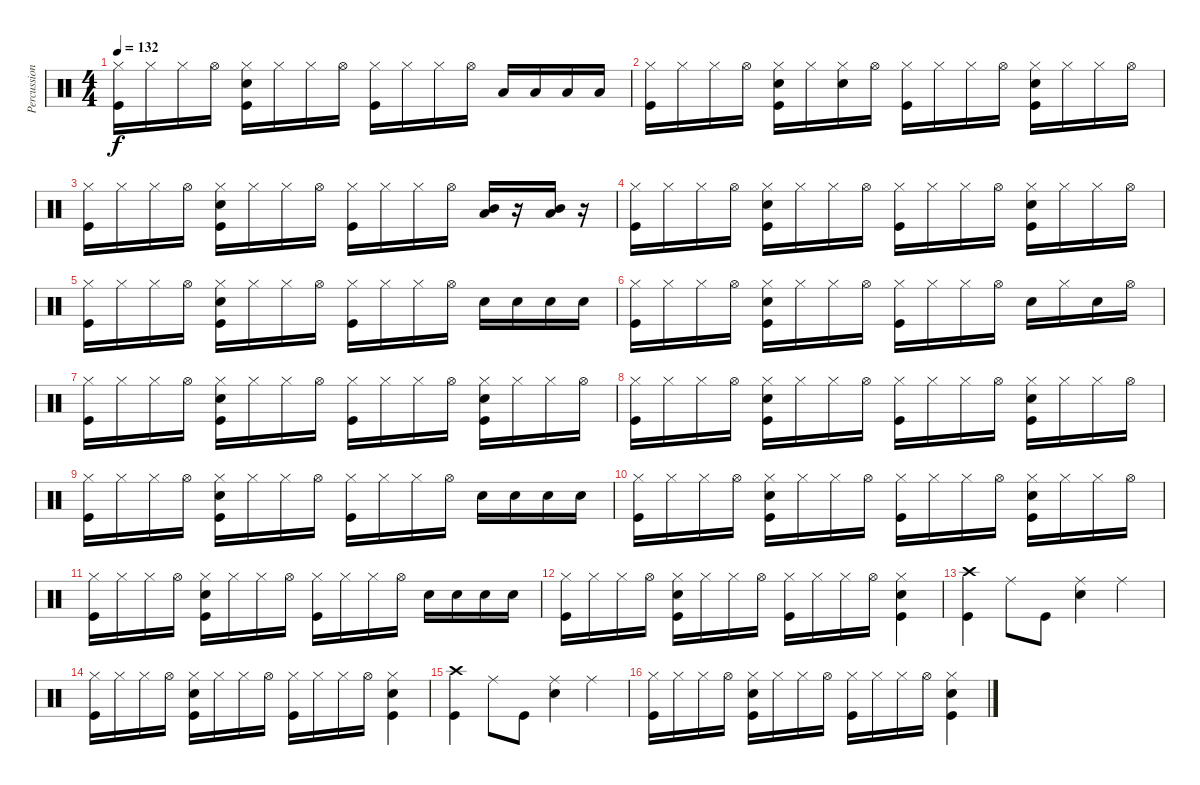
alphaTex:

\track ("Percussion" "Percussion") {instrument percussion}
\staff {score}
\articulation defaults
\ts (4 4)
\tempo 132
\clef neutral
\ks c
("Hi-Hat (closed)" "Kick (hit)").16{dy f} "Hi-Hat (closed)".16 "Hi-Hat (closed)".16 "Hi-Hat (open)".16 ("Hi-Hat (closed)" "Electric Snare (hit)" "Kick (hit)").16 "Hi-Hat (closed)".16 "Hi-Hat (closed)".16 "Hi-Hat (open)".16 ("Hi-Hat (closed)" "Kick (hit)").16 "Hi-Hat (closed)".16 "Hi-Hat (closed)".16 "Hi-Hat (open)".16 "Low Tom (hit)".16 "Low Tom (hit)".16 "Low Tom (hit)".16 "Low Tom (hit)".16 |
("Hi-Hat (closed)" "Kick (hit)").16 "Hi-Hat (closed)".16 "Hi-Hat (closed)".16 "Hi-Hat (open)".16 ("Hi-Hat (closed)" "Electric Snare (hit)" "Kick (hit)").16 "Hi-Hat (closed)".16 ("Hi-Hat (closed)" "Electric Snare (hit)").16 "Hi-Hat (open)".16 ("Hi-Hat (closed)" "Kick (hit)").16 "Hi-Hat (closed)".16 "Hi-Hat (closed)".16 "Hi-Hat (open)".16 ("Hi-Hat (closed)" "Electric Snare (hit)" "Kick (hit)").16 "Hi-Hat (closed)".16 "Hi-Hat (closed)".16 "Hi-Hat (open)".16 |
("Hi-Hat (closed)" "Kick (hit)").16 "Hi-Hat (closed)".16 "Hi-Hat (closed)".16 "Hi-Hat (open)".16 ("Hi-Hat (closed)" "Electric Snare (hit)" "Kick (hit)").16 "Hi-Hat (closed)".16 "Hi-Hat (closed)".16 "Hi-Hat (open)".16 ("Hi-Hat (closed)" "Kick (hit)").16 "Hi-Hat (closed)".16 "Hi-Hat (closed)".16 "Hi-Hat (open)".16 ("Low Tom (hit)" "Mid Tom (hit)").16 r.16 ("Low Tom (hit)" "Mid Tom (hit)").16 r.16 |
("Hi-Hat (closed)" "Kick (hit)").16 "Hi-Hat (closed)".16 "Hi-Hat (closed)".16 "Hi-Hat (open)".16 ("Hi-Hat (closed)" "Electric Snare (hit)" "Kick (hit)").16 "Hi-Hat (closed)".16 "Hi-Hat (closed)".16 "Hi-Hat (open)".16 ("Hi-Hat (closed)" "Kick (hit)").16 "Hi-Hat (closed)".16 "Hi-Hat (closed)".16 "Hi-Hat (open)".16 ("Hi-Hat (closed)" "Electric Snare (hit)" "Kick (hit)").16 "Hi-Hat (closed)".16 "Hi-Hat (closed)".16 "Hi-Hat (open)".16 |
("Hi-Hat (closed)" "Kick (hit)").16 "Hi-Hat (closed)".16 "Hi-Hat (closed)".16 "Hi-Hat (open)".16 ("Hi-Hat (closed)" "Electric Snare (hit)" "Kick (hit)").16 "Hi-Hat (closed)".16 "Hi-Hat (closed)".16 "Hi-Hat (open)".16 ("Hi-Hat (closed)" "Kick (hit)").16 "Hi-Hat (closed)".16 "Hi-Hat (closed)".16 "Hi-Hat (open)".16 "Electric Snare (hit)".16 "Electric Snare (hit)".16 "Electric Snare (hit)".16 "Electric Snare (hit)".16 |
("Hi-Hat (closed)" "Kick (hit)").16 "Hi-Hat (closed)".16 "Hi-Hat (closed)".16 "Hi-Hat (open)".16 ("Hi-Hat (closed)" "Electric Snare (hit)" "Kick (hit)").16 "Hi-Hat (closed)".16 "Hi-Hat (closed)".16 "Hi-Hat (open)".16 ("Hi-Hat (closed)" "Kick (hit)").16 "Hi-Hat (closed)".16 "Hi-Hat (closed)".16 "Hi-Hat (open)".16 "Electric Snare (hit)".16 "Hi-Hat (closed)".16 "Electric Snare (hit)".16 "Hi-Hat (open)".16 |
("Hi-Hat (closed)" "Kick (hit)").16 "Hi-Hat (closed)".16 "Hi-Hat (closed)".16 "Hi-Hat (open)".16 ("Hi-Hat (closed)" "Electric Snare (hit)" "Kick (hit)").16 "Hi-Hat (closed)".16 "Hi-Hat (closed)".16 "Hi-Hat (open)".16 ("Hi-Hat (closed)" "Kick (hit)").16 "Hi-Hat (closed)".16 "Hi-Hat (closed)".16 "Hi-Hat (open)".16 ("Hi-Hat (closed)" "Electric Snare (hit)" "Kick (hit)").16 "Hi-Hat (closed)".16 "Hi-Hat (closed)".16 "Hi-Hat (open)".16 |
("Hi-Hat (closed)" "Kick (hit)").16 "Hi-Hat (closed)".16 "Hi-Hat (closed)".16 "Hi-Hat (open)".16 ("Hi-Hat (closed)" "Electric Snare (hit)" "Kick (hit)").16 "Hi-Hat (closed)".16 "Hi-Hat (closed)".16 "Hi-Hat (open)".16 ("Hi-Hat (closed)" "Kick (hit)").16 "Hi-Hat (closed)".16 "Hi-Hat (closed)".16 "Hi-Hat (open)".16 ("Hi-Hat (closed)" "Electric Snare (hit)" "Kick (hit)").16 "Hi-Hat (closed)".16 "Hi-Hat (closed)".16 "Hi-Hat (open)".16 |
("Hi-Hat (closed)" "Kick (hit)").16 "Hi-Hat (closed)".16 "Hi-Hat (closed)".16 "Hi-Hat (open)".16 ("Hi-Hat (closed)" "Electric Snare (hit)" "Kick (hit)").16 "Hi-Hat (closed)".16 "Hi-Hat (closed)".16 "Hi-Hat (open)".16 ("Hi-Hat (closed)" "Kick (hit)").16 "Hi-Hat (closed)".16 "Hi-Hat (closed)".16 "Hi-Hat (open)".16 "Electric Snare (hit)".16 "Electric Snare (hit)".16 "Electric Snare (hit)".16 "Electric Snare (hit)".16 |
("Hi-Hat (closed)" "Kick (hit)").16 "Hi-Hat (closed)".16 "Hi-Hat (closed)".16 "Hi-Hat (open)".16 ("Hi-Hat (closed)" "Electric Snare (hit)" "Kick (hit)").16 "Hi-Hat (closed)".16 "Hi-Hat (closed)".16 "Hi-Hat (open)".16 ("Hi-Hat (closed)" "Kick (hit)").16 "Hi-Hat (closed)".16 "Hi-Hat (closed)".16 "Hi-Hat (open)".16 ("Hi-Hat (closed)" "Electric Snare (hit)" "Kick (hit)").16 "Hi-Hat (closed)".16 "Hi-Hat (closed)".16 "Hi-Hat (open)".16 |
("Hi-Hat (closed)" "Kick (hit)").16 "Hi-Hat (closed)".16 "Hi-Hat (closed)".16 "Hi-Hat (open)".16 ("Hi-Hat (closed)" "Electric Snare (hit)" "Kick (hit)").16 "Hi-Hat (closed)".16 "Hi-Hat (closed)".16 "Hi-Hat (open)".16 ("Hi-Hat (closed)" "Kick (hit)").16 "Hi-Hat (closed)".16 "Hi-Hat (closed)".16 "Hi-Hat (open)".16 "Electric Snare (hit)".16 "Electric Snare (hit)".16 "Electric Snare (hit)".16 "Electric Snare (hit)".16 |
("Hi-Hat (closed)" "Kick (hit)").16 "Hi-Hat (closed)".16 "Hi-Hat (closed)".16 "Hi-Hat (open)".16 ("Hi-Hat (closed)" "Electric Snare (hit)" "Kick (hit)").16 "Hi-Hat (closed)".16 "Hi-Hat (closed)".16 "Hi-Hat (open)".16 ("Hi-Hat (closed)" "Kick (hit)").16 "Hi-Hat (closed)".16 "Hi-Hat (closed)".16 "Hi-Hat (open)".16 ("Hi-Hat (closed)" "Electric Snare (hit)" "Kick (hit)").4 |
("Crash high (hit)" "Kick (hit)").4 "Ride (middle)".8 "Kick (hit)".8 ("Ride (middle)" "Electric Snare (hit)").4 "Ride (middle)".4 |
("Hi-Hat (closed)" "Kick (hit)").16 "Hi-Hat (closed)".16 "Hi-Hat (closed)".16 "Hi-Hat (open)".16 ("Hi-Hat (closed)" "Electric Snare (hit)" "Kick (hit)").16 "Hi-Hat (closed)".16 "Hi-Hat (closed)".16 "Hi-Hat (open)".16 ("Hi-Hat (closed)" "Kick (hit)").16 "Hi-Hat (closed)".16 "Hi-Hat (closed)".16 "Hi-Hat (open)".16 ("Hi-Hat (closed)" "Electric Snare (hit)" "Kick (hit)").4 |
("Crash high (hit)" "Kick (hit)").4 "Ride (middle)".8 "Kick (hit)".8 ("Ride (middle)" "Electric Snare (hit)").4 "Ride (middle)".4 |
("Hi-Hat (closed)" "Kick (hit)").16 "Hi-Hat (closed)".16 "Hi-Hat (closed)".16 "Hi-Hat (open)".16 ("Hi-Hat (closed)" "Electric Snare (hit)" "Kick (hit)").16 "Hi-Hat (closed)".16 "Hi-Hat (closed)".16 "Hi-Hat (open)".16 ("Hi-Hat (closed)" "Kick (hit)").16 "Hi-Hat (closed)".16 "Hi-Hat (closed)".16 "Hi-Hat (open)".16 ("Hi-Hat (closed)" "Electric Snare (hit)" "Kick (hit)").4
